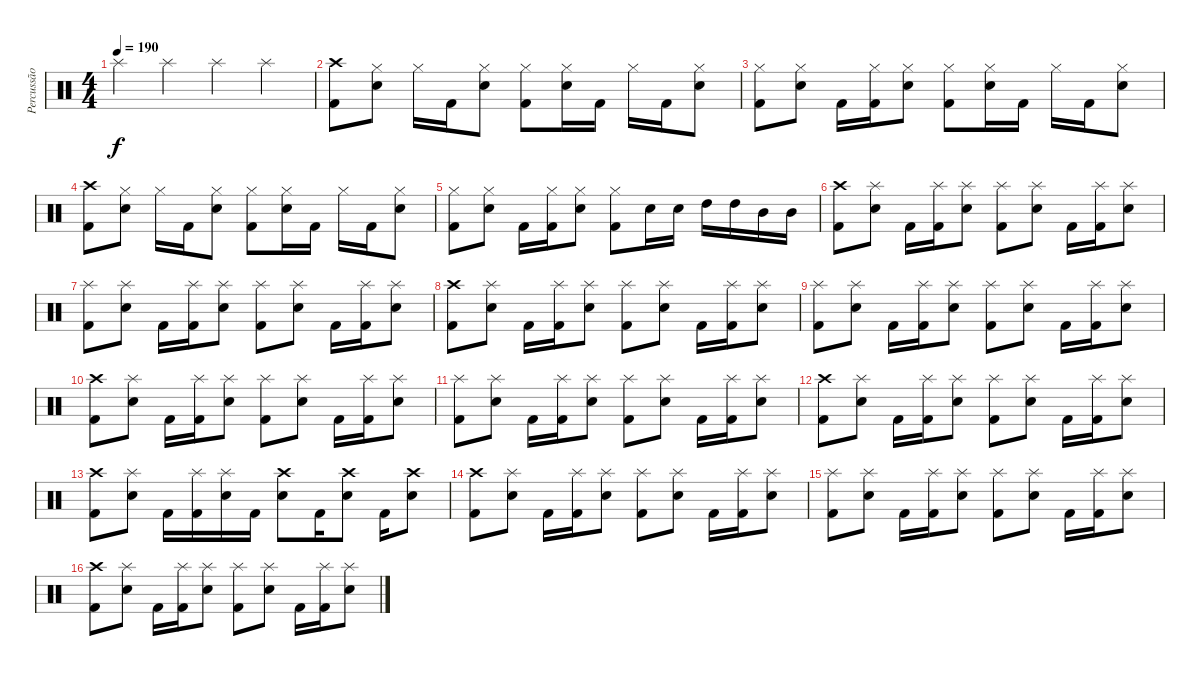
\track ("Percussão" "Percussão") {instrument percussion}
\staff {score}
\articulation defaults
\ts (4 4)
\tempo 190
\clef neutral
\ks c "Splash (hit)".4{dy f} "Splash (hit)".4 "Splash (hit)".4 "Splash (hit)".4
|
("Crash high (hit)" "Kick (hit) 2").8 ("Hi-Hat (closed)" "Electric Snare (hit)").8 "Hi-Hat (closed)".16 "Kick (hit) 2".16 ("Hi-Hat (closed)" "Electric Snare (hit)").8 ("Hi-Hat (closed)" "Kick (hit) 2").8 ("Hi-Hat (closed)" "Electric Snare (hit)").16 "Kick (hit) 2".16 "Hi-Hat (closed)".16 "Kick (hit) 2".16 ("Hi-Hat (closed)" "Electric Snare (hit)").8 |
("Hi-Hat (closed)" "Kick (hit) 2").8 ("Hi-Hat (closed)" "Electric Snare (hit)").8 "Kick (hit) 2".16 ("Hi-Hat (closed)" "Kick (hit) 2").16 ("Hi-Hat (closed)" "Electric Snare (hit)").8 ("Hi-Hat (closed)" "Kick (hit) 2").8 ("Hi-Hat (closed)" "Electric Snare (hit)").16 "Kick (hit) 2".16 "Hi-Hat (closed)".16 "Kick (hit) 2".16 ("Hi-Hat (closed)" "Electric Snare (hit)").8 |
("Crash high (hit)" "Kick (hit) 2").8 ("Hi-Hat (closed)" "Electric Snare (hit)").8 "Hi-Hat (closed)".16 "Kick (hit) 2".16 ("Hi-Hat (closed)" "Electric Snare (hit)").8 ("Hi-Hat (closed)" "Kick (hit) 2").8 ("Hi-Hat (closed)" "Electric Snare (hit)").16 "Kick (hit) 2".16 "Hi-Hat (closed)".16 "Kick (hit) 2".16 ("Hi-Hat (closed)" "Electric Snare (hit)").8 |
("Hi-Hat (closed)" "Kick (hit) 2").8 ("Hi-Hat (closed)" "Electric Snare (hit)").8 "Kick (hit) 2".16 ("Hi-Hat (closed)" "Kick (hit) 2").16 ("Hi-Hat (closed)" "Electric Snare (hit)").8 ("Hi-Hat (closed)" "Kick (hit) 2").8 "Electric Snare (hit)".16 "Electric Snare (hit)".16 "High Tom (hit)".16 "High Tom (hit)".16 "Mid Tom (hit)".16 "Mid Tom (hit)".16 |
("Crash high (hit)" "Kick (hit) 2").8 ("Splash (hit)" "Electric Snare (hit)").8 "Kick (hit) 2".16 ("Splash (hit)" "Kick (hit) 2").16 ("Splash (hit)" "Electric Snare (hit)").8 ("Splash (hit)" "Kick (hit) 2").8 ("Splash (hit)" "Electric Snare (hit)").8 "Kick (hit) 2".16 ("Splash (hit)" "Kick (hit) 2").16 ("Splash (hit)" "Electric Snare (hit)").8 |
("Splash (hit)" "Kick (hit) 2").8 ("Splash (hit)" "Electric Snare (hit)").8 "Kick (hit) 2".16 ("Splash (hit)" "Kick (hit) 2").16 ("Splash (hit)" "Electric Snare (hit)").8 ("Splash (hit)" "Kick (hit) 2").8 ("Splash (hit)" "Electric Snare (hit)").8 "Kick (hit) 2".16 ("Splash (hit)" "Kick (hit) 2").16 ("Splash (hit)" "Electric Snare (hit)").8 |
("Crash high (hit)" "Kick (hit) 2").8 ("Splash (hit)" "Electric Snare (hit)").8 "Kick (hit) 2".16 ("Splash (hit)" "Kick (hit) 2").16 ("Splash (hit)" "Electric Snare (hit)").8 ("Splash (hit)" "Kick (hit) 2").8 ("Splash (hit)" "Electric Snare (hit)").8 "Kick (hit) 2".16 ("Splash (hit)" "Kick (hit) 2").16 ("Splash (hit)" "Electric Snare (hit)").8 |
("Splash (hit)" "Kick (hit) 2").8 ("Splash (hit)" "Electric Snare (hit)").8 "Kick (hit) 2".16 ("Splash (hit)" "Kick (hit) 2").16 ("Splash (hit)" "Electric Snare (hit)").8 ("Splash (hit)" "Kick (hit) 2").8 ("Splash (hit)" "Electric Snare (hit)").8 "Kick (hit) 2".16 ("Splash (hit)" "Kick (hit) 2").16 ("Splash (hit)" "Electric Snare (hit)").8 |
("Crash high (hit)" "Kick (hit) 2").8 ("Splash (hit)" "Electric Snare (hit)").8 "Kick (hit) 2".16 ("Splash (hit)" "Kick (hit) 2").16 ("Splash (hit)" "Electric Snare (hit)").8 ("Splash (hit)" "Kick (hit) 2").8 ("Splash (hit)" "Electric Snare (hit)").8 "Kick (hit) 2".16 ("Splash (hit)" "Kick (hit) 2").16 ("Splash (hit)" "Electric Snare (hit)").8 |
("Splash (hit)" "Kick (hit) 2").8 ("Splash (hit)" "Electric Snare (hit)").8 "Kick (hit) 2".16 ("Splash (hit)" "Kick (hit) 2").16 ("Splash (hit)" "Electric Snare (hit)").8 ("Splash (hit)" "Kick (hit) 2").8 ("Splash (hit)" "Electric Snare (hit)").8 "Kick (hit) 2".16 ("Splash (hit)" "Kick (hit) 2").16 ("Splash (hit)" "Electric Snare (hit)").8 |
("Crash high (hit)" "Kick (hit) 2").8 ("Splash (hit)" "Electric Snare (hit)").8 "Kick (hit) 2".16 ("Splash (hit)" "Kick (hit) 2").16 ("Splash (hit)" "Electric Snare (hit)").8 ("Splash (hit)" "Kick (hit) 2").8 ("Splash (hit)" "Electric Snare (hit)").8 "Kick (hit) 2".16 ("Splash (hit)" "Kick (hit) 2").16 ("Splash (hit)" "Electric Snare (hit)").8 |
("Crash high (hit)" "Kick (hit) 2").8 ("Splash (hit)" "Electric Snare (hit)").8 "Kick (hit) 2".16 ("Splash (hit)" "Kick (hit) 2").16 ("Splash (hit)" "Electric Snare (hit)").16 "Kick (hit) 2".16 ("Crash high (hit)" "Electric Snare (hit)").8 "Kick (hit) 2".16 ("Crash high (hit)" "Electric Snare (hit)").8 "Kick (hit) 2".16 ("Crash high (hit)" "Electric Snare (hit)").8 |
("Crash high (hit)" "Kick (hit) 2").8 ("Splash (hit)" "Electric Snare (hit)").8 "Kick (hit) 2".16 ("Splash (hit)" "Kick (hit) 2").16 ("Splash (hit)" "Electric Snare (hit)").8 ("Splash (hit)" "Kick (hit) 2").8 ("Splash (hit)" "Electric Snare (hit)").8 "Kick (hit) 2".16 ("Splash (hit)" "Kick (hit) 2").16 ("Splash (hit)" "Electric Snare (hit)").8 |
("Splash (hit)" "Kick (hit) 2").8 ("Splash (hit)" "Electric Snare (hit)").8 "Kick (hit) 2".16 ("Splash (hit)" "Kick (hit) 2").16 ("Splash (hit)" "Electric Snare (hit)").8 ("Splash (hit)" "Kick (hit) 2").8 ("Splash (hit)" "Electric Snare (hit)").8 "Kick (hit) 2".16 ("Splash (hit)" "Kick (hit) 2").16 ("Splash (hit)" "Electric Snare (hit)").8 |
("Crash high (hit)" "Kick (hit) 2").8 ("Splash (hit)" "Electric Snare (hit)").8 "Kick (hit) 2".16 ("Splash (hit)" "Kick (hit) 2").16 ("Splash (hit)" "Electric Snare (hit)").8 ("Splash (hit)" "Kick (hit) 2").8 ("Splash (hit)" "Electric Snare (hit)").8 "Kick (hit) 2".16 ("Splash (hit)" "Kick (hit) 2").16 ("Splash (hit)" "Electric Snare (hit)").8
